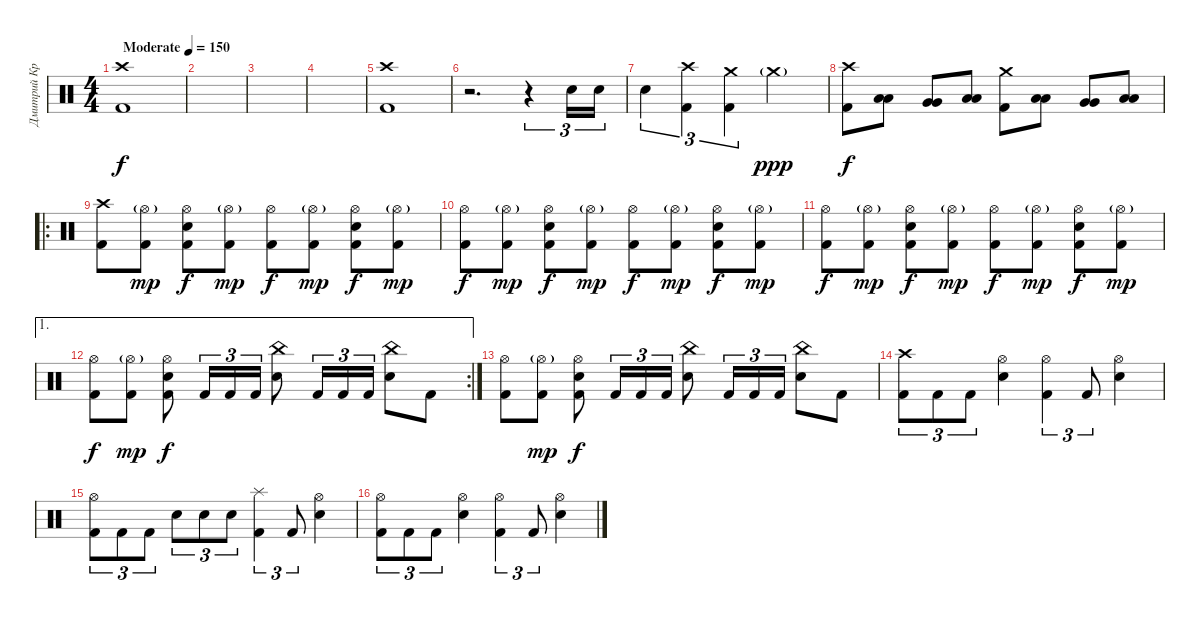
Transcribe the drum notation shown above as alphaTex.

\track ("Дмитрий Кривенков" "Дмитрий Кр") {instrument percussion}
\staff {score}
\articulation defaults
\ts (4 4)
\tempo (150 "Moderate")
\clef neutral
\ks c
("Crash high (hit)" "Kick (hit) 2").1{dy f} |
|
|
|
("Crash high (hit)" "Kick (hit) 2").1 |
r.2{d} r.4{tu (3 2)} "Electric Snare (hit)".16{tu (3 2)} "Electric Snare (hit)".16{tu (3 2)} |
"Electric Snare (hit)".4{tu (3 2)} ("Crash high (hit)" "Kick (hit) 2").4{tu (3 2)} ("Crash medium (hit)" "Kick (hit) 2").4{tu (3 2)} "Crash medium (hit)"{g}.2{dy ppp} |
("Crash high (hit)" "Kick (hit) 2").8{dy f} ("Low Tom (hit)" "Low Tom (hit)").8 ("Very Low Tom (hit)" "Very Low Tom (hit)").8 ("Low Floor Tom (hit)" "Low Floor Tom (hit)").8 ("Crash medium (hit)" "Kick (hit) 2").8 ("Low Tom (hit)" "Low Tom (hit)").8 ("Very Low Tom (hit)" "Very Low Tom (hit)").8 ("Low Floor Tom (hit)" "Low Floor Tom (hit)").8 |
\ro
("Crash high (hit)" "Kick (hit) 2").8 ("Hi-Hat (open)"{g} "Kick (hit) 2").8{dy mp} ("Hi-Hat (open)" "Electric Snare (hit)" "Kick (hit) 2").8{dy f} ("Hi-Hat (open)"{g} "Kick (hit) 2").8{dy mp} ("Hi-Hat (open)" "Kick (hit) 2").8{dy f} ("Hi-Hat (open)"{g} "Kick (hit) 2").8{dy mp} ("Hi-Hat (open)" "Electric Snare (hit)" "Kick (hit) 2").8{dy f} ("Hi-Hat (open)"{g} "Kick (hit) 2").8{dy mp} |
("Hi-Hat (open)" "Kick (hit) 2").8{dy f} ("Hi-Hat (open)"{g} "Kick (hit) 2").8{dy mp} ("Hi-Hat (open)" "Electric Snare (hit)" "Kick (hit) 2").8{dy f} ("Hi-Hat (open)"{g} "Kick (hit) 2").8{dy mp} ("Hi-Hat (open)" "Kick (hit) 2").8{dy f} ("Hi-Hat (open)"{g} "Kick (hit) 2").8{dy mp} ("Hi-Hat (open)" "Electric Snare (hit)" "Kick (hit) 2").8{dy f} ("Hi-Hat (open)"{g} "Kick (hit) 2").8{dy mp} |
("Hi-Hat (open)" "Kick (hit) 2").8{dy f} ("Hi-Hat (open)"{g} "Kick (hit) 2").8{dy mp} ("Hi-Hat (open)" "Electric Snare (hit)" "Kick (hit) 2").8{dy f} ("Hi-Hat (open)"{g} "Kick (hit) 2").8{dy mp} ("Hi-Hat (open)" "Kick (hit) 2").8{dy f} ("Hi-Hat (open)"{g} "Kick (hit) 2").8{dy mp} ("Hi-Hat (open)" "Electric Snare (hit)" "Kick (hit) 2").8{dy f} ("Hi-Hat (open)"{g} "Kick (hit) 2").8{dy mp} |
\ae 1
\rc 2
("Hi-Hat (open)" "Kick (hit) 2").8{dy f} ("Hi-Hat (open)"{g} "Kick (hit) 2").8{dy mp} ("Hi-Hat (open)" "Electric Snare (hit)" "Kick (hit) 2").8{dy f} "Kick (hit) 2".16{tu (3 2)} "Kick (hit) 2".16{tu (3 2)} "Kick (hit) 2".16{tu (3 2)} ("China (hit)" "Electric Snare (hit)").8 "Kick (hit) 2".16{tu (3 2)} "Kick (hit) 2".16{tu (3 2)} "Kick (hit) 2".16{tu (3 2)} ("China (hit)" "Electric Snare (hit)").8 "Kick (hit) 2".8 |
("Hi-Hat (open)" "Kick (hit) 2").8 ("Hi-Hat (open)"{g} "Kick (hit) 2").8{dy mp} ("Hi-Hat (open)" "Electric Snare (hit)" "Kick (hit) 2").8{dy f} "Kick (hit) 2".16{tu (3 2)} "Kick (hit) 2".16{tu (3 2)} "Kick (hit) 2".16{tu (3 2)} ("China (hit)" "Electric Snare (hit)").8 "Kick (hit) 2".16{tu (3 2)} "Kick (hit) 2".16{tu (3 2)} "Kick (hit) 2".16{tu (3 2)} ("China (hit)" "Electric Snare (hit)").8 "Kick (hit) 2".8 |
("Crash high (hit)" "Kick (hit) 2").8{tu (3 2)} "Kick (hit) 2".8{tu (3 2)} "Kick (hit) 2".8{tu (3 2)} ("Hi-Hat (open)" "Electric Snare (hit)").4 ("Hi-Hat (open)" "Kick (hit) 2").4{tu (3 2)} "Kick (hit) 2".8{tu (3 2)} ("Hi-Hat (open)" "Electric Snare (hit)").4 |
("Hi-Hat (open)" "Kick (hit) 2").8{tu (3 2)} "Kick (hit) 2".8{tu (3 2)} "Kick (hit) 2".8{tu (3 2)} "Electric Snare (hit)".8{tu (3 2)} "Electric Snare (hit)".8{tu (3 2)} "Electric Snare (hit)".8{tu (3 2)} ("Splash (hit)" "Kick (hit) 2").4{tu (3 2)} "Kick (hit) 2".8{tu (3 2)} ("Hi-Hat (open)" "Electric Snare (hit)").4 |
("Hi-Hat (open)" "Kick (hit) 2").8{tu (3 2)} "Kick (hit) 2".8{tu (3 2)} "Kick (hit) 2".8{tu (3 2)} ("Hi-Hat (open)" "Electric Snare (hit)").4 ("Hi-Hat (open)" "Kick (hit) 2").4{tu (3 2)} "Kick (hit) 2".8{tu (3 2)} ("Hi-Hat (open)" "Electric Snare (hit)").4
